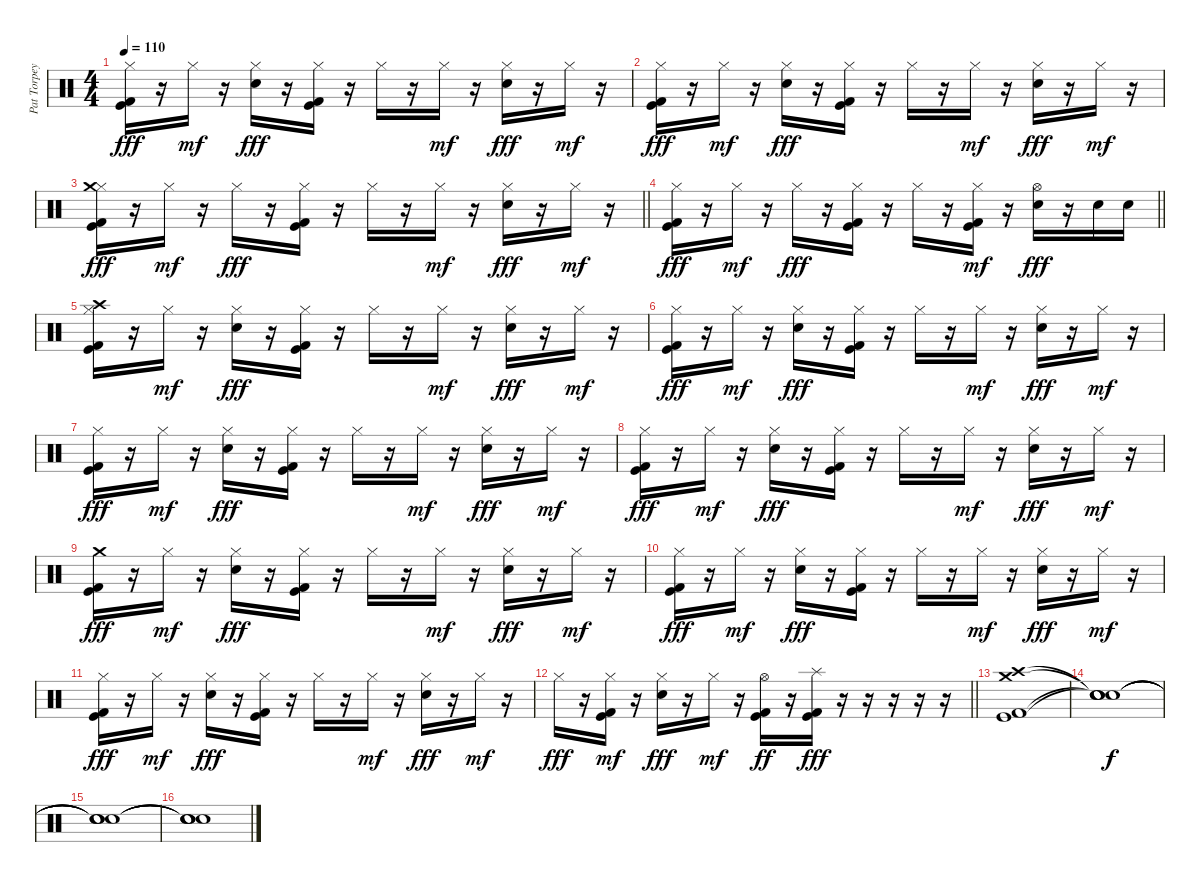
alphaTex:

\track ("Pat Torpey" "Pat Torpey") {instrument percussion}
\staff {score}
\articulation defaults
\ts (4 4)
\tempo 110
\clef neutral
\ks c
("Hi-Hat (closed)" "Kick (hit)" "Kick (hit) 2").16{dy fff} r.16 "Hi-Hat (closed)".16{dy mf} r.16 ("Snare (hit) 2" "Hi-Hat (closed)").16{dy fff} r.16 ("Hi-Hat (closed)" "Kick (hit)" "Kick (hit) 2").16 r.16 "Hi-Hat (closed)".16 r.16 "Hi-Hat (closed)".16{dy mf} r.16 ("Snare (hit) 2" "Hi-Hat (closed)").16{dy fff} r.16 "Hi-Hat (closed)".16{dy mf} r.16 |
("Hi-Hat (closed)" "Kick (hit)" "Kick (hit) 2").16{dy fff} r.16 "Hi-Hat (closed)".16{dy mf} r.16 ("Snare (hit) 2" "Hi-Hat (closed)").16{dy fff} r.16 ("Hi-Hat (closed)" "Kick (hit)" "Kick (hit) 2").16 r.16 "Hi-Hat (closed)".16 r.16 "Hi-Hat (closed)".16{dy mf} r.16 ("Snare (hit) 2" "Hi-Hat (closed)").16{dy fff} r.16 "Hi-Hat (closed)".16{dy mf} r.16 |
\barLineRight lightlight
("Hi-Hat (closed)" "Kick (hit)" "Kick (hit) 2" "Crash medium (hit)").16{dy fff} r.16 "Hi-Hat (closed)".16{dy mf} r.16 "Hi-Hat (closed)".16{dy fff} r.16 ("Hi-Hat (closed)" "Kick (hit)" "Kick (hit) 2").16 r.16 "Hi-Hat (closed)".16 r.16 "Hi-Hat (closed)".16{dy mf} r.16 ("Snare (hit) 2" "Hi-Hat (closed)").16{dy fff} r.16 "Hi-Hat (closed)".16{dy mf} r.16 |
\barLineRight lightlight
("Hi-Hat (closed)" "Kick (hit)" "Kick (hit) 2").16{dy fff} r.16 "Hi-Hat (closed)".16{dy mf} r.16 "Hi-Hat (closed)".16{dy fff} r.16 ("Hi-Hat (closed)" "Kick (hit)" "Kick (hit) 2").16 r.16 "Hi-Hat (closed)".16 r.16 ("Kick (hit)" "Kick (hit) 2" "Hi-Hat (closed)").16{dy mf} r.16 ("Snare (hit) 2" "Hi-Hat (open)").16{dy fff} r.16 "Snare (hit) 2".16 "Snare (hit) 2".16 |
("Crash high (hit)" "Hi-Hat (closed)" "Kick (hit)" "Kick (hit) 2").16 r.16 "Hi-Hat (closed)".16{dy mf} r.16 ("Snare (hit) 2" "Hi-Hat (closed)").16{dy fff} r.16 ("Hi-Hat (closed)" "Kick (hit)" "Kick (hit) 2").16 r.16 "Hi-Hat (closed)".16 r.16 "Hi-Hat (closed)".16{dy mf} r.16 ("Snare (hit) 2" "Hi-Hat (closed)").16{dy fff} r.16 "Hi-Hat (closed)".16{dy mf} r.16 |
("Hi-Hat (closed)" "Kick (hit)" "Kick (hit) 2").16{dy fff} r.16 "Hi-Hat (closed)".16{dy mf} r.16 ("Snare (hit) 2" "Hi-Hat (closed)").16{dy fff} r.16 ("Hi-Hat (closed)" "Kick (hit)" "Kick (hit) 2").16 r.16 "Hi-Hat (closed)".16 r.16 "Hi-Hat (closed)".16{dy mf} r.16 ("Snare (hit) 2" "Hi-Hat (closed)").16{dy fff} r.16 "Hi-Hat (closed)".16{dy mf} r.16 |
("Hi-Hat (closed)" "Kick (hit)" "Kick (hit) 2").16{dy fff} r.16 "Hi-Hat (closed)".16{dy mf} r.16 ("Snare (hit) 2" "Hi-Hat (closed)").16{dy fff} r.16 ("Hi-Hat (closed)" "Kick (hit)" "Kick (hit) 2").16 r.16 "Hi-Hat (closed)".16 r.16 "Hi-Hat (closed)".16{dy mf} r.16 ("Snare (hit) 2" "Hi-Hat (closed)").16{dy fff} r.16 "Hi-Hat (closed)".16{dy mf} r.16 |
("Hi-Hat (closed)" "Kick (hit)" "Kick (hit) 2").16{dy fff} r.16 "Hi-Hat (closed)".16{dy mf} r.16 ("Snare (hit) 2" "Hi-Hat (closed)").16{dy fff} r.16 ("Hi-Hat (closed)" "Kick (hit)" "Kick (hit) 2").16 r.16 "Hi-Hat (closed)".16 r.16 "Hi-Hat (closed)".16{dy mf} r.16 ("Snare (hit) 2" "Hi-Hat (closed)").16{dy fff} r.16 "Hi-Hat (closed)".16{dy mf} r.16 |
("Crash medium (hit)" "Kick (hit)" "Kick (hit) 2").16{dy fff} r.16 "Hi-Hat (closed)".16{dy mf} r.16 ("Snare (hit) 2" "Hi-Hat (closed)").16{dy fff} r.16 ("Hi-Hat (closed)" "Kick (hit)" "Kick (hit) 2").16 r.16 "Hi-Hat (closed)".16 r.16 "Hi-Hat (closed)".16{dy mf} r.16 ("Snare (hit) 2" "Hi-Hat (closed)").16{dy fff} r.16 "Hi-Hat (closed)".16{dy mf} r.16 |
("Hi-Hat (closed)" "Kick (hit)" "Kick (hit) 2").16{dy fff} r.16 "Hi-Hat (closed)".16{dy mf} r.16 ("Snare (hit) 2" "Hi-Hat (closed)").16{dy fff} r.16 ("Hi-Hat (closed)" "Kick (hit)" "Kick (hit) 2").16 r.16 "Hi-Hat (closed)".16 r.16 "Hi-Hat (closed)".16{dy mf} r.16 ("Snare (hit) 2" "Hi-Hat (closed)").16{dy fff} r.16 "Hi-Hat (closed)".16{dy mf} r.16 |
("Hi-Hat (closed)" "Kick (hit)" "Kick (hit) 2").16{dy fff} r.16 "Hi-Hat (closed)".16{dy mf} r.16 ("Snare (hit) 2" "Hi-Hat (closed)").16{dy fff} r.16 ("Hi-Hat (closed)" "Kick (hit)" "Kick (hit) 2").16 r.16 "Hi-Hat (closed)".16 r.16 "Hi-Hat (closed)".16{dy mf} r.16 ("Snare (hit) 2" "Hi-Hat (closed)").16{dy fff} r.16 "Hi-Hat (closed)".16{dy mf} r.16 |
\barLineRight lightlight "Hi-Hat (closed)".16{dy fff}
r.16 ("Kick (hit)" "Kick (hit) 2" "Hi-Hat (closed)").16{dy mf} r.16 ("Snare (hit) 2" "Hi-Hat (closed)").16{dy fff} r.16 "Hi-Hat (closed)".16{dy mf} r.16 ("Kick (hit)" "Kick (hit) 2" "Hi-Hat (open)").16{dy ff} r.16 ("Kick (hit)" "Kick (hit) 2" "Splash (hit)").16{dy fff} r.16 r.16 r.16 r.16 r.16 |
("Kick (hit)" "Kick (hit) 2" "Crash medium (hit)" "Crash high (hit)").1 |
("Snare (hit)"{t} "Snare (hit)"{t} "Snare (hit)"{t} "Snare (hit)"{t}).1{dy f} |
("Snare (hit)"{t} "Snare (hit)"{t} "Snare (hit)"{t} "Snare (hit)"{t}).1 |
("Snare (hit)"{t} "Snare (hit)"{t} "Snare (hit)"{t} "Snare (hit)"{t}).1
